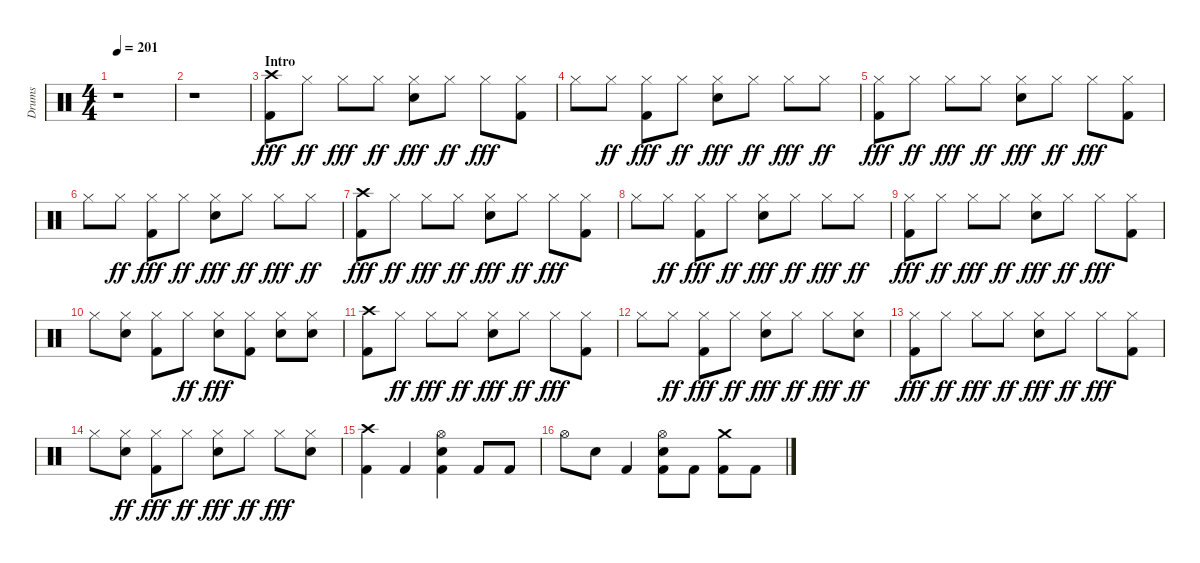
\track ("Drums" "Drums") {instrument percussion}
\staff {score}
\articulation defaults
\ts (4 4)
\tempo 201
\clef neutral
\ks aminor
r.1{dy fff} |
r.1 |
\section ("" "Intro")
("Kick (hit) 2" "Crash high (hit)").8 "Hi-Hat (closed)".8{dy ff} "Hi-Hat (closed)".8{dy fff} "Hi-Hat (closed)".8{dy ff} ("Snare (hit) 2" "Hi-Hat (closed)").8{dy fff} "Hi-Hat (closed)".8{dy ff} "Hi-Hat (closed)".8{dy fff} ("Kick (hit) 2" "Hi-Hat (closed)").8 |
"Hi-Hat (closed)".8 "Hi-Hat (closed)".8{dy ff} ("Kick (hit) 2" "Hi-Hat (closed)").8{dy fff} "Hi-Hat (closed)".8{dy ff} ("Snare (hit) 2" "Hi-Hat (closed)").8{dy fff} "Hi-Hat (closed)".8{dy ff} "Hi-Hat (closed)".8{dy fff} "Hi-Hat (closed)".8{dy ff} |
("Kick (hit) 2" "Hi-Hat (closed)").8{dy fff} "Hi-Hat (closed)".8{dy ff} "Hi-Hat (closed)".8{dy fff} "Hi-Hat (closed)".8{dy ff} ("Snare (hit) 2" "Hi-Hat (closed)").8{dy fff} "Hi-Hat (closed)".8{dy ff} "Hi-Hat (closed)".8{dy fff} ("Kick (hit) 2" "Hi-Hat (closed)").8 |
"Hi-Hat (closed)".8 "Hi-Hat (closed)".8{dy ff} ("Kick (hit) 2" "Hi-Hat (closed)").8{dy fff} "Hi-Hat (closed)".8{dy ff} ("Snare (hit) 2" "Hi-Hat (closed)").8{dy fff} "Hi-Hat (closed)".8{dy ff} "Hi-Hat (closed)".8{dy fff} "Hi-Hat (closed)".8{dy ff} |
("Kick (hit) 2" "Crash high (hit)").8{dy fff} "Hi-Hat (closed)".8{dy ff} "Hi-Hat (closed)".8{dy fff} "Hi-Hat (closed)".8{dy ff} ("Snare (hit) 2" "Hi-Hat (closed)").8{dy fff} "Hi-Hat (closed)".8{dy ff} "Hi-Hat (closed)".8{dy fff} ("Kick (hit) 2" "Hi-Hat (closed)").8 |
"Hi-Hat (closed)".8 "Hi-Hat (closed)".8{dy ff} ("Kick (hit) 2" "Hi-Hat (closed)").8{dy fff} "Hi-Hat (closed)".8{dy ff} ("Snare (hit) 2" "Hi-Hat (closed)").8{dy fff} "Hi-Hat (closed)".8{dy ff} "Hi-Hat (closed)".8{dy fff} "Hi-Hat (closed)".8{dy ff} |
("Kick (hit) 2" "Hi-Hat (closed)").8{dy fff} "Hi-Hat (closed)".8{dy ff} "Hi-Hat (closed)".8{dy fff} "Hi-Hat (closed)".8{dy ff} ("Snare (hit) 2" "Hi-Hat (closed)").8{dy fff} "Hi-Hat (closed)".8{dy ff} "Hi-Hat (closed)".8{dy fff} ("Kick (hit) 2" "Hi-Hat (closed)").8 |
"Hi-Hat (closed)".8 ("Snare (hit) 2" "Hi-Hat (closed)").8 ("Kick (hit) 2" "Hi-Hat (closed)").8 "Hi-Hat (closed)".8{dy ff} ("Snare (hit) 2" "Hi-Hat (closed)").8{dy fff} ("Kick (hit) 2" "Hi-Hat (closed)").8 ("Snare (hit) 2" "Hi-Hat (closed)").8 ("Snare (hit) 2" "Hi-Hat (closed)").8 |
("Kick (hit) 2" "Crash high (hit)").8 "Hi-Hat (closed)".8{dy ff} "Hi-Hat (closed)".8{dy fff} "Hi-Hat (closed)".8{dy ff} ("Snare (hit) 2" "Hi-Hat (closed)").8{dy fff} "Hi-Hat (closed)".8{dy ff} "Hi-Hat (closed)".8{dy fff} ("Kick (hit) 2" "Hi-Hat (closed)").8 |
"Hi-Hat (closed)".8 "Hi-Hat (closed)".8{dy ff} ("Kick (hit) 2" "Hi-Hat (closed)").8{dy fff} "Hi-Hat (closed)".8{dy ff} ("Snare (hit) 2" "Hi-Hat (closed)").8{dy fff} "Hi-Hat (closed)".8{dy ff} "Hi-Hat (closed)".8{dy fff} ("Snare (hit) 2" "Hi-Hat (closed)").8{dy ff} |
("Kick (hit) 2" "Hi-Hat (closed)").8{dy fff} "Hi-Hat (closed)".8{dy ff} "Hi-Hat (closed)".8{dy fff} "Hi-Hat (closed)".8{dy ff} ("Snare (hit) 2" "Hi-Hat (closed)").8{dy fff} "Hi-Hat (closed)".8{dy ff} "Hi-Hat (closed)".8{dy fff} ("Kick (hit) 2" "Hi-Hat (closed)").8 |
"Hi-Hat (closed)".8 ("Snare (hit) 2" "Hi-Hat (closed)").8{dy ff} ("Kick (hit) 2" "Hi-Hat (closed)").8{dy fff} "Hi-Hat (closed)".8{dy ff} ("Snare (hit) 2" "Hi-Hat (closed)").8{dy fff} "Hi-Hat (closed)".8{dy ff} "Hi-Hat (closed)".8{dy fff} ("Snare (hit) 2" "Hi-Hat (closed)").8 |
("Kick (hit) 2" "Crash high (hit)").4 "Kick (hit) 2".4 ("Kick (hit) 2" "Snare (hit) 2" "Hi-Hat (open)").4 "Kick (hit) 2".8 "Kick (hit) 2".8 |
"Hi-Hat (open)".8 "Snare (hit) 2".8 "Kick (hit) 2".4 ("Kick (hit) 2" "Snare (hit) 2" "Hi-Hat (open)").8 "Kick (hit) 2".8 ("Kick (hit) 2" "Crash medium (hit)").8 "Kick (hit) 2".8
